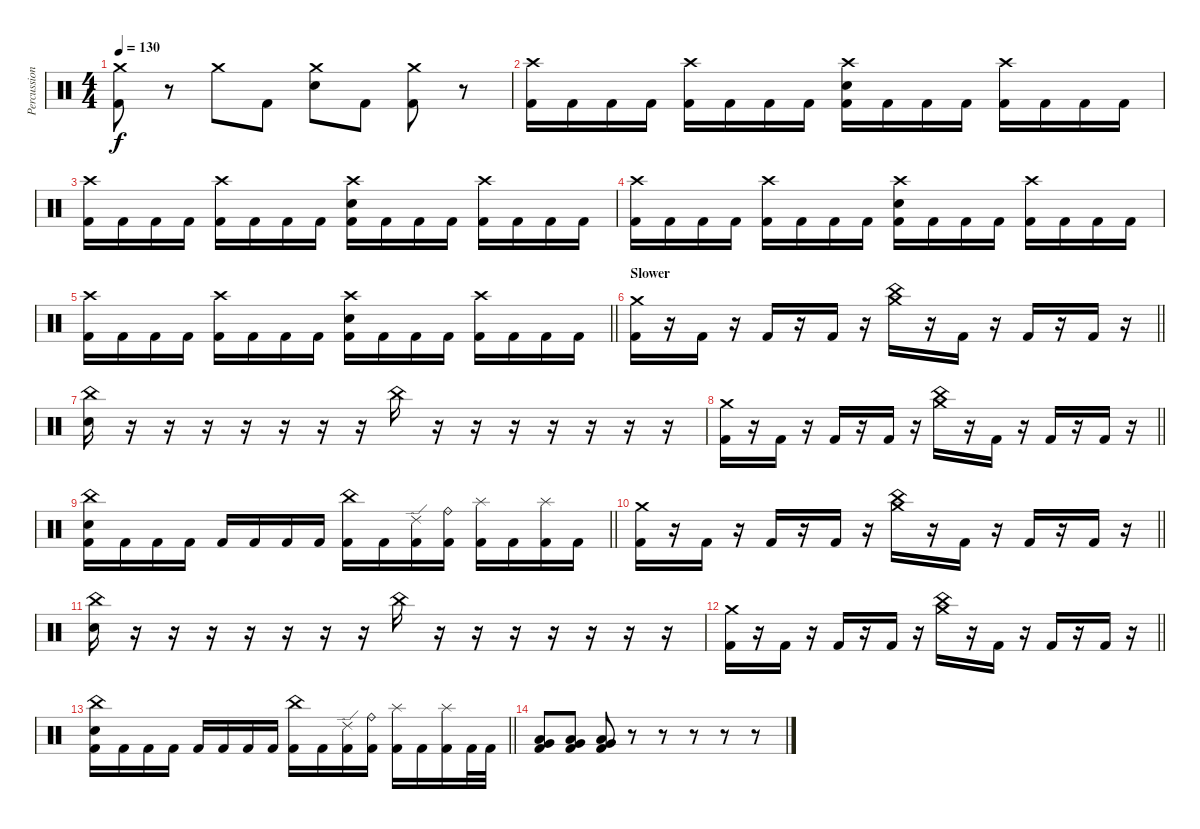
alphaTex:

\track ("Percussion" "Percussion") {instrument percussion}
\staff {score}
\articulation defaults
\ts (4 4)
\tempo 130
\clef neutral
\ks c
("Crash medium (hit)" "Kick (hit) 2").8{dy f} r.8 "Crash medium (hit)".8 "Kick (hit) 2".8 ("Crash medium (hit)" "Electric Snare (hit)").8 "Kick (hit) 2".8 ("Crash medium (hit)" "Kick (hit) 2").8 r.8 |
("Crash high (hit)" "Kick (hit) 2").16 "Kick (hit) 2".16 "Kick (hit) 2".16 "Kick (hit) 2".16 ("Crash high (hit)" "Kick (hit) 2").16 "Kick (hit) 2".16 "Kick (hit) 2".16 "Kick (hit) 2".16 ("Crash high (hit)" "Electric Snare (hit)" "Kick (hit) 2").16 "Kick (hit) 2".16 "Kick (hit) 2".16 "Kick (hit) 2".16 ("Crash high (hit)" "Kick (hit) 2").16 "Kick (hit) 2".16 "Kick (hit) 2".16 "Kick (hit) 2".16 |
("Crash high (hit)" "Kick (hit) 2").16 "Kick (hit) 2".16 "Kick (hit) 2".16 "Kick (hit) 2".16 ("Crash high (hit)" "Kick (hit) 2").16 "Kick (hit) 2".16 "Kick (hit) 2".16 "Kick (hit) 2".16 ("Crash high (hit)" "Electric Snare (hit)" "Kick (hit) 2").16 "Kick (hit) 2".16 "Kick (hit) 2".16 "Kick (hit) 2".16 ("Crash high (hit)" "Kick (hit) 2").16 "Kick (hit) 2".16 "Kick (hit) 2".16 "Kick (hit) 2".16 |
("Crash high (hit)" "Kick (hit) 2").16 "Kick (hit) 2".16 "Kick (hit) 2".16 "Kick (hit) 2".16 ("Crash high (hit)" "Kick (hit) 2").16 "Kick (hit) 2".16 "Kick (hit) 2".16 "Kick (hit) 2".16 ("Crash high (hit)" "Electric Snare (hit)" "Kick (hit) 2").16 "Kick (hit) 2".16 "Kick (hit) 2".16 "Kick (hit) 2".16 ("Crash high (hit)" "Kick (hit) 2").16 "Kick (hit) 2".16 "Kick (hit) 2".16 "Kick (hit) 2".16 |
\barLineRight lightlight
("Crash high (hit)" "Kick (hit) 2").16 "Kick (hit) 2".16 "Kick (hit) 2".16 "Kick (hit) 2".16 ("Crash high (hit)" "Kick (hit) 2").16 "Kick (hit) 2".16 "Kick (hit) 2".16 "Kick (hit) 2".16 ("Crash high (hit)" "Electric Snare (hit)" "Kick (hit) 2").16 "Kick (hit) 2".16 "Kick (hit) 2".16 "Kick (hit) 2".16 ("Crash high (hit)" "Kick (hit) 2").16 "Kick (hit) 2".16 "Kick (hit) 2".16 "Kick (hit) 2".16 |
\section ("" "Slower")
\barLineRight lightlight
("Crash medium (hit)" "Kick (hit) 2").16 r.16 "Kick (hit) 2".16 r.16 "Kick (hit) 2".16 r.16 "Kick (hit) 2".16 r.16 ("Crash medium (hit)" "China (hit)").16 r.16 "Kick (hit) 2".16 r.16 "Kick (hit) 2".16 r.16 "Kick (hit) 2".16 r.16 |
("China (hit)" "Electric Snare (hit)").16 r.16 r.16 r.16 r.16 r.16 r.16 r.16 "China (hit)".16 r.16 r.16 r.16 r.16 r.16 r.16 r.16 |
\barLineRight lightlight
("Crash medium (hit)" "Kick (hit) 2").16 r.16 "Kick (hit) 2".16 r.16 "Kick (hit) 2".16 r.16 "Kick (hit) 2".16 r.16 ("Crash medium (hit)" "China (hit)").16 r.16 "Kick (hit) 2".16 r.16 "Kick (hit) 2".16 r.16 "Kick (hit) 2".16 r.16 |
\barLineRight lightlight
("China (hit)" "Electric Snare (hit)" "Kick (hit) 2").16 "Kick (hit) 2".16 "Kick (hit) 2".16 "Kick (hit) 2".16 "Kick (hit) 2".16 "Kick (hit) 2".16 "Kick (hit) 2".16 "Kick (hit) 2".16 ("China (hit)" "Kick (hit) 2").16 "Kick (hit) 2".16 ("Ride (edge) 2" "Kick (hit) 2").16 ("Ride (bell)" "Kick (hit) 2").16 ("Splash (hit)" "Kick (hit) 2").16 "Kick (hit) 2".16 ("Splash (hit)" "Kick (hit) 2").16 "Kick (hit) 2".16 |
\barLineRight lightlight
("Crash medium (hit)" "Kick (hit) 2").16 r.16 "Kick (hit) 2".16 r.16 "Kick (hit) 2".16 r.16 "Kick (hit) 2".16 r.16 ("Crash medium (hit)" "China (hit)").16 r.16 "Kick (hit) 2".16 r.16 "Kick (hit) 2".16 r.16 "Kick (hit) 2".16 r.16 |
("China (hit)" "Electric Snare (hit)").16 r.16 r.16 r.16 r.16 r.16 r.16 r.16 "China (hit)".16 r.16 r.16 r.16 r.16 r.16 r.16 r.16 |
\barLineRight lightlight
("Crash medium (hit)" "Kick (hit) 2").16 r.16 "Kick (hit) 2".16 r.16 "Kick (hit) 2".16 r.16 "Kick (hit) 2".16 r.16 ("Crash medium (hit)" "China (hit)").16 r.16 "Kick (hit) 2".16 r.16 "Kick (hit) 2".16 r.16 "Kick (hit) 2".16 r.16 |
\barLineRight lightlight
("China (hit)" "Electric Snare (hit)" "Kick (hit) 2").16 "Kick (hit) 2".16 "Kick (hit) 2".16 "Kick (hit) 2".16 "Kick (hit) 2".16 "Kick (hit) 2".16 "Kick (hit) 2".16 "Kick (hit) 2".16 ("China (hit)" "Kick (hit) 2").16 "Kick (hit) 2".16 ("Ride (edge) 2" "Kick (hit) 2").16 ("Ride (bell)" "Kick (hit) 2").16 ("Splash (hit)" "Kick (hit) 2").16 "Kick (hit) 2".16 ("Splash (hit)" "Kick (hit) 2").16 "Kick (hit) 2".32 "Kick (hit) 2".32 |
("Very Low Tom (hit)" "Low Floor Tom (hit)" "Kick (hit) 2").8 ("Very Low Tom (hit)" "Low Floor Tom (hit)" "Kick (hit) 2").8 ("Very Low Tom (hit)" "Low Floor Tom (hit)" "Kick (hit) 2").8 r.8 r.8 r.8 r.8 r.8
